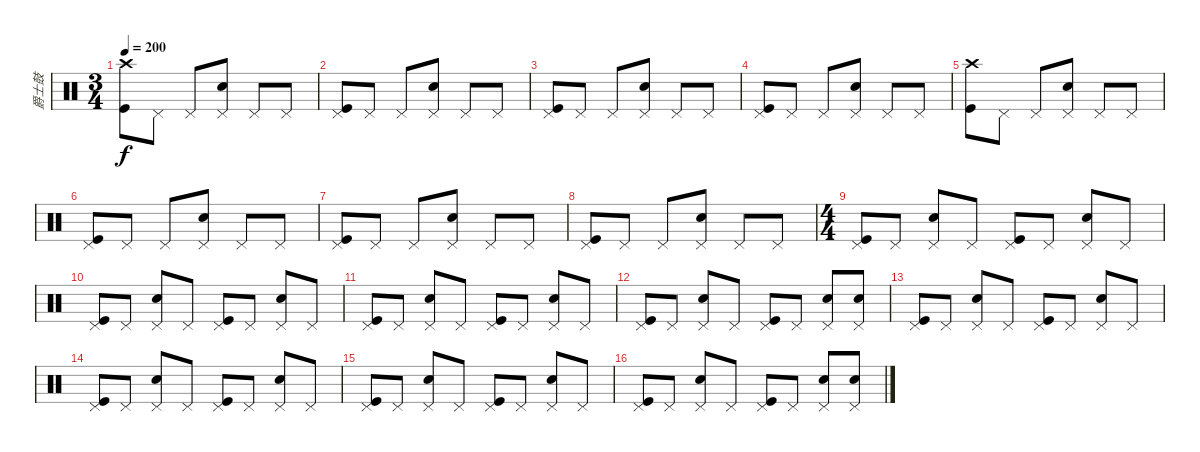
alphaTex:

\track ("爵士鼓" "爵士鼓") {instrument percussion}
\staff {score}
\articulation defaults
\ts (3 4)
\tempo 200
\clef neutral
\ks c
("Crash high (hit)" "Kick (hit)").8{dy f} "Pedal Hi-Hat (hit)".8 "Pedal Hi-Hat (hit)".8 ("Pedal Hi-Hat (hit)" "Electric Snare (hit)").8 "Pedal Hi-Hat (hit)".8 "Pedal Hi-Hat (hit)".8 |
("Pedal Hi-Hat (hit)" "Kick (hit)").8 "Pedal Hi-Hat (hit)".8 "Pedal Hi-Hat (hit)".8 ("Pedal Hi-Hat (hit)" "Electric Snare (hit)").8 "Pedal Hi-Hat (hit)".8 "Pedal Hi-Hat (hit)".8 |
("Pedal Hi-Hat (hit)" "Kick (hit)").8 "Pedal Hi-Hat (hit)".8 "Pedal Hi-Hat (hit)".8 ("Pedal Hi-Hat (hit)" "Electric Snare (hit)").8 "Pedal Hi-Hat (hit)".8 "Pedal Hi-Hat (hit)".8 |
("Pedal Hi-Hat (hit)" "Kick (hit)").8 "Pedal Hi-Hat (hit)".8 "Pedal Hi-Hat (hit)".8 ("Pedal Hi-Hat (hit)" "Electric Snare (hit)").8 "Pedal Hi-Hat (hit)".8 "Pedal Hi-Hat (hit)".8 |
("Crash high (hit)" "Kick (hit)").8 "Pedal Hi-Hat (hit)".8 "Pedal Hi-Hat (hit)".8 ("Pedal Hi-Hat (hit)" "Electric Snare (hit)").8 "Pedal Hi-Hat (hit)".8 "Pedal Hi-Hat (hit)".8 |
("Pedal Hi-Hat (hit)" "Kick (hit)").8 "Pedal Hi-Hat (hit)".8 "Pedal Hi-Hat (hit)".8 ("Pedal Hi-Hat (hit)" "Electric Snare (hit)").8 "Pedal Hi-Hat (hit)".8 "Pedal Hi-Hat (hit)".8 |
("Pedal Hi-Hat (hit)" "Kick (hit)").8 "Pedal Hi-Hat (hit)".8 "Pedal Hi-Hat (hit)".8 ("Pedal Hi-Hat (hit)" "Electric Snare (hit)").8 "Pedal Hi-Hat (hit)".8 "Pedal Hi-Hat (hit)".8 |
("Pedal Hi-Hat (hit)" "Kick (hit)").8 "Pedal Hi-Hat (hit)".8 "Pedal Hi-Hat (hit)".8 ("Pedal Hi-Hat (hit)" "Electric Snare (hit)").8 "Pedal Hi-Hat (hit)".8 "Pedal Hi-Hat (hit)".8 |
\ts (4 4)
("Pedal Hi-Hat (hit)" "Kick (hit)").8 "Pedal Hi-Hat (hit)".8 ("Pedal Hi-Hat (hit)" "Electric Snare (hit)").8 "Pedal Hi-Hat (hit)".8 ("Pedal Hi-Hat (hit)" "Kick (hit)").8 "Pedal Hi-Hat (hit)".8 ("Pedal Hi-Hat (hit)" "Electric Snare (hit)").8 "Pedal Hi-Hat (hit)".8 |
("Pedal Hi-Hat (hit)" "Kick (hit)").8 "Pedal Hi-Hat (hit)".8 ("Pedal Hi-Hat (hit)" "Electric Snare (hit)").8 "Pedal Hi-Hat (hit)".8 ("Pedal Hi-Hat (hit)" "Kick (hit)").8 "Pedal Hi-Hat (hit)".8 ("Pedal Hi-Hat (hit)" "Electric Snare (hit)").8 "Pedal Hi-Hat (hit)".8 |
("Pedal Hi-Hat (hit)" "Kick (hit)").8 "Pedal Hi-Hat (hit)".8 ("Pedal Hi-Hat (hit)" "Electric Snare (hit)").8 "Pedal Hi-Hat (hit)".8 ("Pedal Hi-Hat (hit)" "Kick (hit)").8 "Pedal Hi-Hat (hit)".8 ("Pedal Hi-Hat (hit)" "Electric Snare (hit)").8 "Pedal Hi-Hat (hit)".8 |
("Pedal Hi-Hat (hit)" "Kick (hit)").8 "Pedal Hi-Hat (hit)".8 ("Pedal Hi-Hat (hit)" "Electric Snare (hit)").8 "Pedal Hi-Hat (hit)".8 ("Pedal Hi-Hat (hit)" "Kick (hit)").8 "Pedal Hi-Hat (hit)".8 ("Pedal Hi-Hat (hit)" "Electric Snare (hit)").8 ("Pedal Hi-Hat (hit)" "Electric Snare (hit)").8 |
("Pedal Hi-Hat (hit)" "Kick (hit)").8 "Pedal Hi-Hat (hit)".8 ("Pedal Hi-Hat (hit)" "Electric Snare (hit)").8 "Pedal Hi-Hat (hit)".8 ("Pedal Hi-Hat (hit)" "Kick (hit)").8 "Pedal Hi-Hat (hit)".8 ("Pedal Hi-Hat (hit)" "Electric Snare (hit)").8 "Pedal Hi-Hat (hit)".8 |
("Pedal Hi-Hat (hit)" "Kick (hit)").8 "Pedal Hi-Hat (hit)".8 ("Pedal Hi-Hat (hit)" "Electric Snare (hit)").8 "Pedal Hi-Hat (hit)".8 ("Pedal Hi-Hat (hit)" "Kick (hit)").8 "Pedal Hi-Hat (hit)".8 ("Pedal Hi-Hat (hit)" "Electric Snare (hit)").8 "Pedal Hi-Hat (hit)".8 |
("Pedal Hi-Hat (hit)" "Kick (hit)").8 "Pedal Hi-Hat (hit)".8 ("Pedal Hi-Hat (hit)" "Electric Snare (hit)").8 "Pedal Hi-Hat (hit)".8 ("Pedal Hi-Hat (hit)" "Kick (hit)").8 "Pedal Hi-Hat (hit)".8 ("Pedal Hi-Hat (hit)" "Electric Snare (hit)").8 "Pedal Hi-Hat (hit)".8 |
("Pedal Hi-Hat (hit)" "Kick (hit)").8 "Pedal Hi-Hat (hit)".8 ("Pedal Hi-Hat (hit)" "Electric Snare (hit)").8 "Pedal Hi-Hat (hit)".8 ("Pedal Hi-Hat (hit)" "Kick (hit)").8 "Pedal Hi-Hat (hit)".8 ("Pedal Hi-Hat (hit)" "Electric Snare (hit)").8 ("Pedal Hi-Hat (hit)" "Electric Snare (hit)").8
